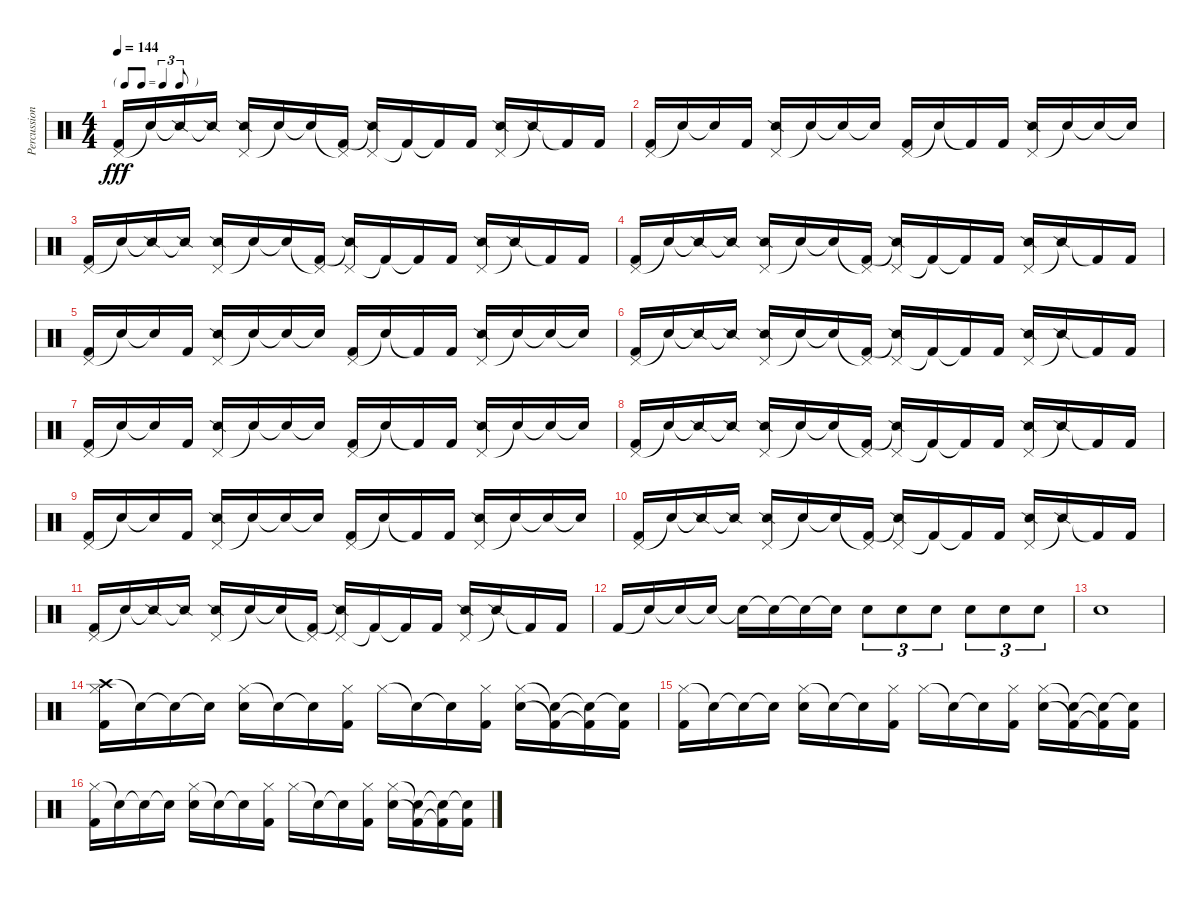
\track ("Percussion" "Percussion") {instrument percussion}
\staff {score}
\articulation defaults
\ts (4 4)
\tf triplet8th
\tempo 144
\clef neutral
\ks c
("Pedal Hi-Hat (hit)" "Kick (hit) 2").16{dy fff} "Snare (hit)"{t}.16 "Snare (side stick) 2"{t}.16 "Snare (side stick) 2"{t}.16 ("Pedal Hi-Hat (hit)" "Snare (side stick) 2").16 "Snare (hit)"{t}.16 "Snare (hit)"{t}.16 ("Pedal Hi-Hat (hit)"{t} "Kick (hit) 2").16 ("Pedal Hi-Hat (hit)" "Snare (side stick) 2"{t}).16 "Kick (hit) 2"{t}.16 "Kick (hit) 2"{t}.16 "Kick (hit) 2".16 ("Pedal Hi-Hat (hit)" "Snare (side stick) 2").16 "Snare (side stick) 2"{t}.16 "Kick (hit) 2"{t}.16 "Kick (hit) 2".16 |
("Pedal Hi-Hat (hit)" "Kick (hit) 2").16 "Snare (hit)"{t}.16 "Snare (hit)"{t}.16 "Kick (hit) 2".16 ("Pedal Hi-Hat (hit)" "Snare (side stick) 2").16 "Snare (hit)"{t}.16 "Snare (hit)"{t}.16 "Snare (hit)"{t}.16 ("Pedal Hi-Hat (hit)" "Kick (hit) 2").16 "Snare (hit)"{t}.16 "Kick (hit) 2"{t}.16 "Kick (hit) 2".16 ("Pedal Hi-Hat (hit)" "Snare (side stick) 2").16 "Snare (hit)"{t}.16 "Snare (hit)"{t}.16 "Snare (hit)"{t}.16 |
("Pedal Hi-Hat (hit)" "Kick (hit) 2").16 "Snare (hit)"{t}.16 "Snare (side stick) 2"{t}.16 "Snare (side stick) 2"{t}.16 ("Pedal Hi-Hat (hit)" "Snare (side stick) 2").16 "Snare (hit)"{t}.16 "Snare (hit)"{t}.16 ("Pedal Hi-Hat (hit)"{t} "Kick (hit) 2").16 ("Pedal Hi-Hat (hit)" "Snare (side stick) 2"{t}).16 "Kick (hit) 2"{t}.16 "Kick (hit) 2"{t}.16 "Kick (hit) 2".16 ("Pedal Hi-Hat (hit)" "Snare (side stick) 2").16 "Snare (side stick) 2"{t}.16 "Kick (hit) 2"{t}.16 "Kick (hit) 2".16 |
("Pedal Hi-Hat (hit)" "Kick (hit) 2").16 "Snare (hit)"{t}.16 "Snare (side stick) 2"{t}.16 "Snare (side stick) 2"{t}.16 ("Pedal Hi-Hat (hit)" "Snare (side stick) 2").16 "Snare (hit)"{t}.16 "Snare (hit)"{t}.16 ("Pedal Hi-Hat (hit)"{t} "Kick (hit) 2").16 ("Pedal Hi-Hat (hit)" "Snare (side stick) 2"{t}).16 "Kick (hit) 2"{t}.16 "Kick (hit) 2"{t}.16 "Kick (hit) 2".16 ("Pedal Hi-Hat (hit)" "Snare (side stick) 2").16 "Snare (side stick) 2"{t}.16 "Kick (hit) 2"{t}.16 "Kick (hit) 2".16 |
("Pedal Hi-Hat (hit)" "Kick (hit) 2").16 "Snare (hit)"{t}.16 "Snare (hit)"{t}.16 "Kick (hit) 2".16 ("Pedal Hi-Hat (hit)" "Snare (side stick) 2").16 "Snare (hit)"{t}.16 "Snare (hit)"{t}.16 "Snare (hit)"{t}.16 ("Pedal Hi-Hat (hit)" "Kick (hit) 2").16 "Snare (hit)"{t}.16 "Kick (hit) 2"{t}.16 "Kick (hit) 2".16 ("Pedal Hi-Hat (hit)" "Snare (side stick) 2").16 "Snare (hit)"{t}.16 "Snare (hit)"{t}.16 "Snare (hit)"{t}.16 |
("Pedal Hi-Hat (hit)" "Kick (hit) 2").16 "Snare (hit)"{t}.16 "Snare (side stick) 2"{t}.16 "Snare (side stick) 2"{t}.16 ("Pedal Hi-Hat (hit)" "Snare (side stick) 2").16 "Snare (hit)"{t}.16 "Snare (hit)"{t}.16 ("Pedal Hi-Hat (hit)"{t} "Kick (hit) 2").16 ("Pedal Hi-Hat (hit)" "Snare (side stick) 2"{t}).16 "Kick (hit) 2"{t}.16 "Kick (hit) 2"{t}.16 "Kick (hit) 2".16 ("Pedal Hi-Hat (hit)" "Snare (side stick) 2").16 "Snare (side stick) 2"{t}.16 "Kick (hit) 2"{t}.16 "Kick (hit) 2".16 |
("Pedal Hi-Hat (hit)" "Kick (hit) 2").16 "Snare (hit)"{t}.16 "Snare (hit)"{t}.16 "Kick (hit) 2".16 ("Pedal Hi-Hat (hit)" "Snare (side stick) 2").16 "Snare (hit)"{t}.16 "Snare (hit)"{t}.16 "Snare (hit)"{t}.16 ("Pedal Hi-Hat (hit)" "Kick (hit) 2").16 "Snare (hit)"{t}.16 "Kick (hit) 2"{t}.16 "Kick (hit) 2".16 ("Pedal Hi-Hat (hit)" "Snare (side stick) 2").16 "Snare (hit)"{t}.16 "Snare (hit)"{t}.16 "Snare (hit)"{t}.16 |
("Pedal Hi-Hat (hit)" "Kick (hit) 2").16 "Snare (hit)"{t}.16 "Snare (side stick) 2"{t}.16 "Snare (side stick) 2"{t}.16 ("Pedal Hi-Hat (hit)" "Snare (side stick) 2").16 "Snare (hit)"{t}.16 "Snare (hit)"{t}.16 ("Pedal Hi-Hat (hit)"{t} "Kick (hit) 2").16 ("Pedal Hi-Hat (hit)" "Snare (side stick) 2"{t}).16 "Kick (hit) 2"{t}.16 "Kick (hit) 2"{t}.16 "Kick (hit) 2".16 ("Pedal Hi-Hat (hit)" "Snare (side stick) 2").16 "Snare (side stick) 2"{t}.16 "Kick (hit) 2"{t}.16 "Kick (hit) 2".16 |
("Pedal Hi-Hat (hit)" "Kick (hit) 2").16 "Snare (hit)"{t}.16 "Snare (hit)"{t}.16 "Kick (hit) 2".16 ("Pedal Hi-Hat (hit)" "Snare (side stick) 2").16 "Snare (hit)"{t}.16 "Snare (hit)"{t}.16 "Snare (hit)"{t}.16 ("Pedal Hi-Hat (hit)" "Kick (hit) 2").16 "Snare (hit)"{t}.16 "Kick (hit) 2"{t}.16 "Kick (hit) 2".16 ("Pedal Hi-Hat (hit)" "Snare (side stick) 2").16 "Snare (hit)"{t}.16 "Snare (hit)"{t}.16 "Snare (hit)"{t}.16 |
("Pedal Hi-Hat (hit)" "Kick (hit) 2").16 "Snare (hit)"{t}.16 "Snare (side stick) 2"{t}.16 "Snare (side stick) 2"{t}.16 ("Pedal Hi-Hat (hit)" "Snare (side stick) 2").16 "Snare (hit)"{t}.16 "Snare (hit)"{t}.16 ("Pedal Hi-Hat (hit)"{t} "Kick (hit) 2").16 ("Pedal Hi-Hat (hit)" "Snare (side stick) 2"{t}).16 "Kick (hit) 2"{t}.16 "Kick (hit) 2"{t}.16 "Kick (hit) 2".16 ("Pedal Hi-Hat (hit)" "Snare (side stick) 2").16 "Snare (side stick) 2"{t}.16 "Kick (hit) 2"{t}.16 "Kick (hit) 2".16 |
("Pedal Hi-Hat (hit)" "Kick (hit) 2").16 "Snare (hit)"{t}.16 "Snare (side stick) 2"{t}.16 "Snare (side stick) 2"{t}.16 ("Pedal Hi-Hat (hit)" "Snare (side stick) 2").16 "Snare (hit)"{t}.16 "Snare (hit)"{t}.16 ("Pedal Hi-Hat (hit)"{t} "Kick (hit) 2").16 ("Pedal Hi-Hat (hit)" "Snare (side stick) 2"{t}).16 "Kick (hit) 2"{t}.16 "Kick (hit) 2"{t}.16 "Kick (hit) 2".16 ("Pedal Hi-Hat (hit)" "Snare (side stick) 2").16 "Snare (side stick) 2"{t}.16 "Kick (hit) 2"{t}.16 "Kick (hit) 2".16 |
"Kick (hit) 2".16 "Snare (hit)"{t}.16 "Snare (hit)"{t}.16 "Snare (hit)"{t}.16 "Snare (hit)"{t}.16 "Snare (hit)"{t}.16 "Snare (hit)"{t}.16 "Snare (hit)"{t}.16 "Electric Snare (hit)".8{tu (3 2)} "Electric Snare (hit)".8{tu (3 2)} "Electric Snare (hit)".8{tu (3 2)} "Electric Snare (hit)".8{tu (3 2)} "Electric Snare (hit)".8{tu (3 2)} "Electric Snare (hit)".8{tu (3 2)} |
"Electric Snare (hit)".1 |
("Crash high (hit)" "Hi-Hat (closed)" "Kick (hit) 2").16 "Snare (hit)"{t}.16 "Snare (hit)"{t}.16 "Snare (hit)"{t}.16 ("Hi-Hat (closed)" "Electric Snare (hit)").16 "Snare (hit)"{t}.16 "Snare (hit)"{t}.16 ("Hi-Hat (closed)" "Kick (hit) 2").16 "Hi-Hat (closed)".16 "Snare (hit)"{t}.16 "Snare (hit)"{t}.16 ("Hi-Hat (closed)" "Kick (hit) 2").16 ("Hi-Hat (closed)" "Electric Snare (hit)").16 ("Snare (hit)"{t} "Kick (hit) 2"{t}).16 ("Snare (hit)"{t} "Kick (hit) 2"{t}).16 ("Snare (hit)"{t} "Kick (hit) 2").16 |
("Hi-Hat (closed)" "Kick (hit) 2").16 "Snare (hit)"{t}.16 "Snare (hit)"{t}.16 "Snare (hit)"{t}.16 ("Hi-Hat (closed)" "Electric Snare (hit)").16 "Snare (hit)"{t}.16 "Snare (hit)"{t}.16 ("Hi-Hat (closed)" "Kick (hit) 2").16 "Hi-Hat (closed)".16 "Snare (hit)"{t}.16 "Snare (hit)"{t}.16 ("Hi-Hat (closed)" "Kick (hit) 2").16 ("Hi-Hat (closed)" "Electric Snare (hit)").16 ("Snare (hit)"{t} "Kick (hit) 2"{t}).16 ("Snare (hit)"{t} "Kick (hit) 2"{t}).16 ("Snare (hit)"{t} "Kick (hit) 2").16 |
("Hi-Hat (closed)" "Kick (hit) 2").16 "Snare (hit)"{t}.16 "Snare (hit)"{t}.16 "Snare (hit)"{t}.16 ("Hi-Hat (closed)" "Electric Snare (hit)").16 "Snare (hit)"{t}.16 "Snare (hit)"{t}.16 ("Hi-Hat (closed)" "Kick (hit) 2").16 "Hi-Hat (closed)".16 "Snare (hit)"{t}.16 "Snare (hit)"{t}.16 ("Hi-Hat (closed)" "Kick (hit) 2").16 ("Hi-Hat (closed)" "Electric Snare (hit)").16 ("Snare (hit)"{t} "Kick (hit) 2"{t}).16 ("Snare (hit)"{t} "Kick (hit) 2"{t}).16 ("Snare (hit)"{t} "Kick (hit) 2").16
